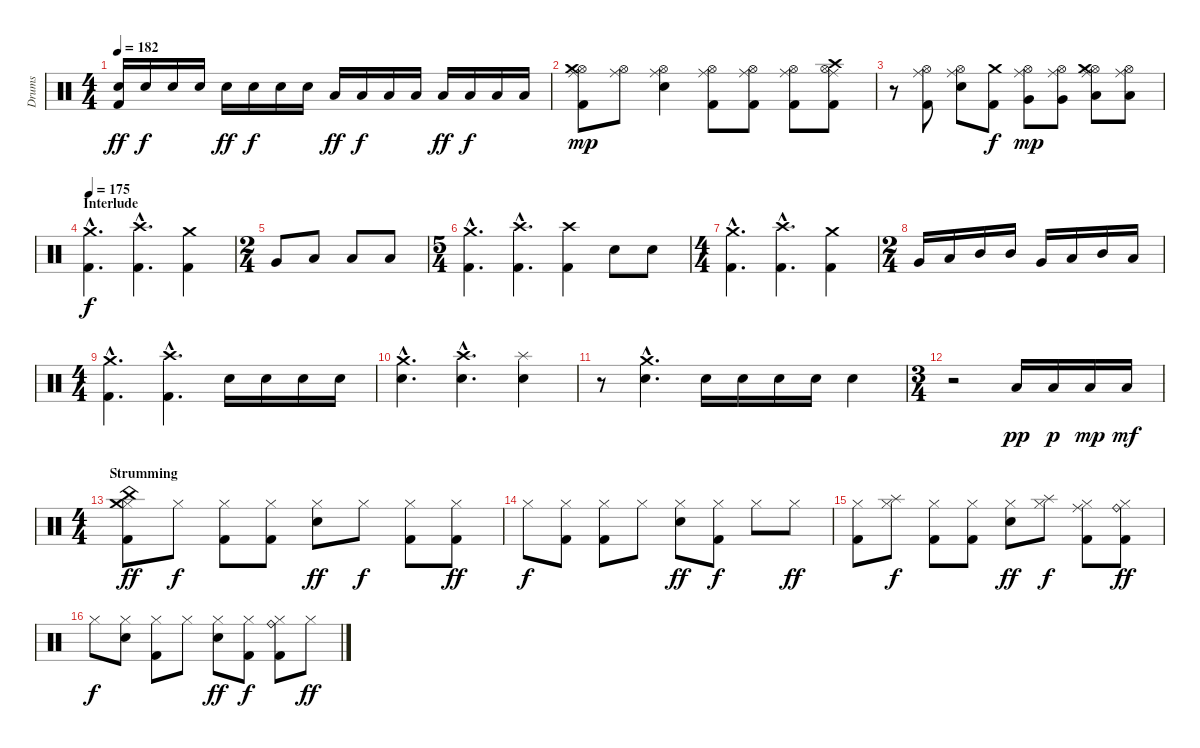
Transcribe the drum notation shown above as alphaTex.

\track ("Drums" "Drums") {instrument percussion}
\staff {score}
\articulation defaults
\ts (4 4)
\tempo 182
\clef neutral
\ks c
("Electric Snare (hit)" "Kick (hit) 2").16{dy ff} "Electric Snare (hit)".16{dy f} "Electric Snare (hit)".16 "Electric Snare (hit)".16 "Electric Snare (hit)".16{dy ff} "Electric Snare (hit)".16{dy f} "Electric Snare (hit)".16 "Electric Snare (hit)".16 "Low Tom (hit)".16{dy ff} "Low Tom (hit)".16{dy f} "Low Tom (hit)".16 "Low Tom (hit)".16 "Low Tom (hit)".16{dy ff} "Low Tom (hit)".16{dy f} "Low Tom (hit)".16 "Low Tom (hit)".16 |
("Ride (middle)" "Hi-Hat (open)" "Crash medium (hit)" "Kick (hit) 2").8{dy mp} ("Ride (middle)" "Hi-Hat (open)").8 ("Ride (middle)" "Hi-Hat (open)" "Electric Snare (hit)").4 ("Ride (middle)" "Hi-Hat (open)" "Kick (hit) 2").8 ("Ride (middle)" "Hi-Hat (open)" "Kick (hit) 2").8 ("Ride (middle)" "Hi-Hat (open)" "Kick (hit) 2").8 ("Ride (middle)" "Hi-Hat (open)" "Crash high (hit)" "Kick (hit) 2").8 |
r.8 ("Ride (middle)" "Hi-Hat (open)" "Kick (hit) 2").8 ("Ride (middle)" "Hi-Hat (open)" "Electric Snare (hit)").8 ("Crash medium (hit)" "Kick (hit) 2").8{dy f} ("Ride (middle)" "Hi-Hat (open)" "Very Low Tom (hit)").8{dy mp} ("Ride (middle)" "Hi-Hat (open)" "Very Low Tom (hit)").8 ("Ride (middle)" "Hi-Hat (open)" "Crash medium (hit)" "Low Tom (hit)").8 ("Ride (middle)" "Hi-Hat (open)" "Low Floor Tom (hit)").8 |
\section ("" "Interlude")
\tempo 175
("Crash medium (hit)"{hac} "Kick (hit) 2"{hac}).4{d dy f} ("Crash high (hit)"{hac} "Kick (hit) 2"{hac}).4{d} ("Crash medium (hit)" "Kick (hit) 2").4 |
\ts (2 4)
"Very Low Tom (hit)".8 "Low Tom (hit)".8 "Low Floor Tom (hit)".8 "Low Tom (hit)".8 |
\ts (5 4)
("Crash medium (hit)"{hac} "Kick (hit) 2"{hac}).4{d} ("Crash high (hit)"{hac} "Kick (hit) 2"{hac}).4{d} ("Crash high (hit)" "Kick (hit) 2").4 "Electric Snare (hit)".8 "Electric Snare (hit)".8 |
\ts (4 4)
("Crash medium (hit)"{hac} "Kick (hit) 2"{hac}).4{d} ("Crash high (hit)"{hac} "Kick (hit) 2"{hac}).4{d} ("Crash medium (hit)" "Kick (hit) 2").4 |
\ts (2 4)
"Very Low Tom (hit)".16 "Low Tom (hit)".16 "Mid Tom (hit)".16 "Mid Tom (hit)".16 "Very Low Tom (hit)".16 "Low Tom (hit)".16 "Mid Tom (hit)".16 "Low Tom (hit)".16 |
\ts (4 4)
("Crash medium (hit)"{hac} "Kick (hit) 2"{hac}).4{d} ("Crash high (hit)"{hac} "Kick (hit) 2"{hac}).4{d} "Electric Snare (hit)".16 "Electric Snare (hit)".16 "Electric Snare (hit)".16 "Electric Snare (hit)".16 |
("Crash medium (hit)"{hac} "Electric Snare (hit)"{hac}).4{d} ("Crash high (hit)"{hac} "Electric Snare (hit)"{hac}).4{d} ("Splash (hit)" "Electric Snare (hit)").4 |
r.8 ("Crash medium (hit)"{hac} "Electric Snare (hit)"{hac}).4{d} "Electric Snare (hit)".16 "Electric Snare (hit)".16 "Electric Snare (hit)".16 "Electric Snare (hit)".16 "Electric Snare (hit)".4 |
\ts (3 4)
r.2 "Low Tom (hit)".16{dy pp} "Low Tom (hit)".16{dy p} "Low Tom (hit)".16{dy mp} "Low Tom (hit)".16{dy mf} |
\ts (4 4)
\section ("" "Strumming")
("Hi-Hat (closed)" "China (hit)" "Crash medium (hit)" "Kick (hit) 2").8{dy ff} "Hi-Hat (closed)".8{dy f} ("Hi-Hat (closed)" "Kick (hit) 2").8 ("Hi-Hat (closed)" "Kick (hit) 2").8 ("Hi-Hat (closed)" "Electric Snare (hit)").8{dy ff} "Hi-Hat (closed)".8{dy f} ("Hi-Hat (closed)" "Kick (hit) 2").8 ("Hi-Hat (closed)" "Kick (hit) 2").8{dy ff} |
"Hi-Hat (closed)".8{dy f} ("Hi-Hat (closed)" "Kick (hit) 2").8 ("Hi-Hat (closed)" "Kick (hit) 2").8 "Hi-Hat (closed)".8 ("Hi-Hat (closed)" "Electric Snare (hit)").8{dy ff} ("Hi-Hat (closed)" "Kick (hit) 2").8{dy f} "Hi-Hat (closed)".8 "Hi-Hat (closed)".8{dy ff} |
("Hi-Hat (closed)" "Kick (hit) 2").8 ("Hi-Hat (closed)" "Splash (hit)").8{dy f} ("Hi-Hat (closed)" "Kick (hit) 2").8 ("Hi-Hat (closed)" "Kick (hit) 2").8 ("Hi-Hat (closed)" "Electric Snare (hit)").8{dy ff} ("Hi-Hat (closed)" "Splash (hit)").8{dy f} ("Hi-Hat (closed)" "Ride (middle)" "Kick (hit) 2").8 ("Hi-Hat (closed)" "Ride (bell)" "Kick (hit) 2").8{dy ff} |
"Hi-Hat (closed)".8{dy f} ("Hi-Hat (closed)" "Electric Snare (hit)").8 ("Hi-Hat (closed)" "Kick (hit) 2").8 "Hi-Hat (closed)".8 ("Hi-Hat (closed)" "Electric Snare (hit)").8{dy ff} ("Hi-Hat (closed)" "Kick (hit) 2").8{dy f} ("Hi-Hat (closed)" "Ride (bell)" "Kick (hit) 2").8 "Hi-Hat (closed)".8{dy ff}
